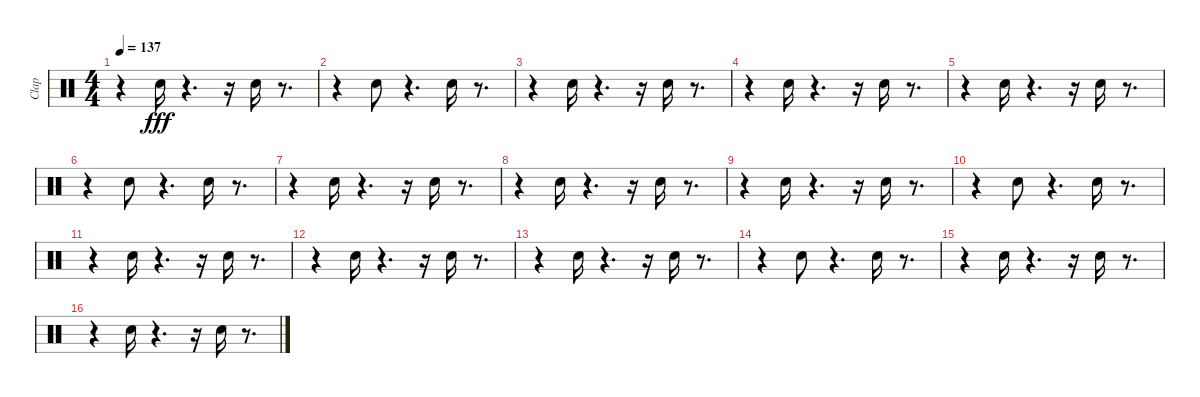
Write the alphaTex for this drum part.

\track ("Clap" "Clap") {instrument percussion}
\staff {score}
\articulation defaults
\ts (4 4)
\tempo 137
\clef neutral
\ks c
r.4{dy fff} "Hand Clap (hit)".16 r.4{d} r.16 "Hand Clap (hit)".16 r.8{d} |
r.4 "Hand Clap (hit)".8 r.4{d} "Hand Clap (hit)".16 r.8{d} |
r.4 "Hand Clap (hit)".16 r.4{d} r.16 "Hand Clap (hit)".16 r.8{d} |
r.4 "Hand Clap (hit)".16 r.4{d} r.16 "Hand Clap (hit)".16 r.8{d} |
r.4 "Hand Clap (hit)".16 r.4{d} r.16 "Hand Clap (hit)".16 r.8{d} |
r.4 "Hand Clap (hit)".8 r.4{d} "Hand Clap (hit)".16 r.8{d} |
r.4 "Hand Clap (hit)".16 r.4{d} r.16 "Hand Clap (hit)".16 r.8{d} |
r.4 "Hand Clap (hit)".16 r.4{d} r.16 "Hand Clap (hit)".16 r.8{d} |
r.4 "Hand Clap (hit)".16 r.4{d} r.16 "Hand Clap (hit)".16 r.8{d} |
r.4 "Hand Clap (hit)".8 r.4{d} "Hand Clap (hit)".16 r.8{d} |
r.4 "Hand Clap (hit)".16 r.4{d} r.16 "Hand Clap (hit)".16 r.8{d} |
r.4 "Hand Clap (hit)".16 r.4{d} r.16 "Hand Clap (hit)".16 r.8{d} |
r.4 "Hand Clap (hit)".16 r.4{d} r.16 "Hand Clap (hit)".16 r.8{d} |
r.4 "Hand Clap (hit)".8 r.4{d} "Hand Clap (hit)".16 r.8{d} |
r.4 "Hand Clap (hit)".16 r.4{d} r.16 "Hand Clap (hit)".16 r.8{d} |
r.4 "Hand Clap (hit)".16 r.4{d} r.16 "Hand Clap (hit)".16 r.8{d}
